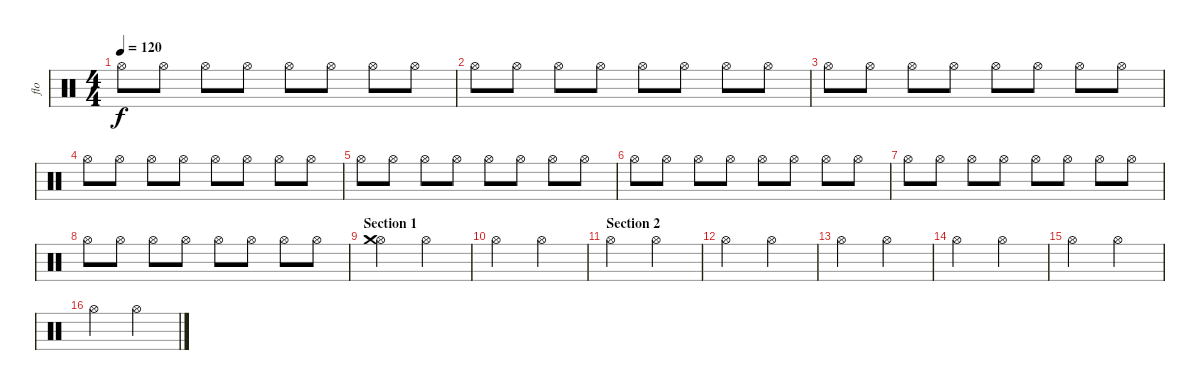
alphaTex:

\track ("flo" "flo") {instrument percussion}
\staff {score}
\articulation defaults
\ts (4 4)
\tempo 120
\clef neutral
\ks c "Hi-Hat (open)".8{dy f} "Hi-Hat (open)".8 "Hi-Hat (open)".8 "Hi-Hat (open)".8 "Hi-Hat (open)".8 "Hi-Hat (open)".8 "Hi-Hat (open)".8 "Hi-Hat (open)".8
|
"Hi-Hat (open)".8 "Hi-Hat (open)".8 "Hi-Hat (open)".8 "Hi-Hat (open)".8 "Hi-Hat (open)".8 "Hi-Hat (open)".8 "Hi-Hat (open)".8 "Hi-Hat (open)".8 |
"Hi-Hat (open)".8 "Hi-Hat (open)".8 "Hi-Hat (open)".8 "Hi-Hat (open)".8 "Hi-Hat (open)".8 "Hi-Hat (open)".8 "Hi-Hat (open)".8 "Hi-Hat (open)".8 |
"Hi-Hat (open)".8 "Hi-Hat (open)".8 "Hi-Hat (open)".8 "Hi-Hat (open)".8 "Hi-Hat (open)".8 "Hi-Hat (open)".8 "Hi-Hat (open)".8 "Hi-Hat (open)".8 |
"Hi-Hat (open)".8 "Hi-Hat (open)".8 "Hi-Hat (open)".8 "Hi-Hat (open)".8 "Hi-Hat (open)".8 "Hi-Hat (open)".8 "Hi-Hat (open)".8 "Hi-Hat (open)".8 |
"Hi-Hat (open)".8 "Hi-Hat (open)".8 "Hi-Hat (open)".8 "Hi-Hat (open)".8 "Hi-Hat (open)".8 "Hi-Hat (open)".8 "Hi-Hat (open)".8 "Hi-Hat (open)".8 |
"Hi-Hat (open)".8 "Hi-Hat (open)".8 "Hi-Hat (open)".8 "Hi-Hat (open)".8 "Hi-Hat (open)".8 "Hi-Hat (open)".8 "Hi-Hat (open)".8 "Hi-Hat (open)".8 |
"Hi-Hat (open)".8 "Hi-Hat (open)".8 "Hi-Hat (open)".8 "Hi-Hat (open)".8 "Hi-Hat (open)".8 "Hi-Hat (open)".8 "Hi-Hat (open)".8 "Hi-Hat (open)".8 |
\section ("" "Section 1")
("Hi-Hat (open)" "Crash medium (hit)").2 "Hi-Hat (open)".2 |
"Hi-Hat (open)".2 "Hi-Hat (open)".2 |
\section ("" "Section 2")
"Hi-Hat (open)".2 "Hi-Hat (open)".2 |
"Hi-Hat (open)".2 "Hi-Hat (open)".2 |
"Hi-Hat (open)".2 "Hi-Hat (open)".2 |
"Hi-Hat (open)".2 "Hi-Hat (open)".2 |
"Hi-Hat (open)".2 "Hi-Hat (open)".2 |
"Hi-Hat (open)".2 "Hi-Hat (open)".2
